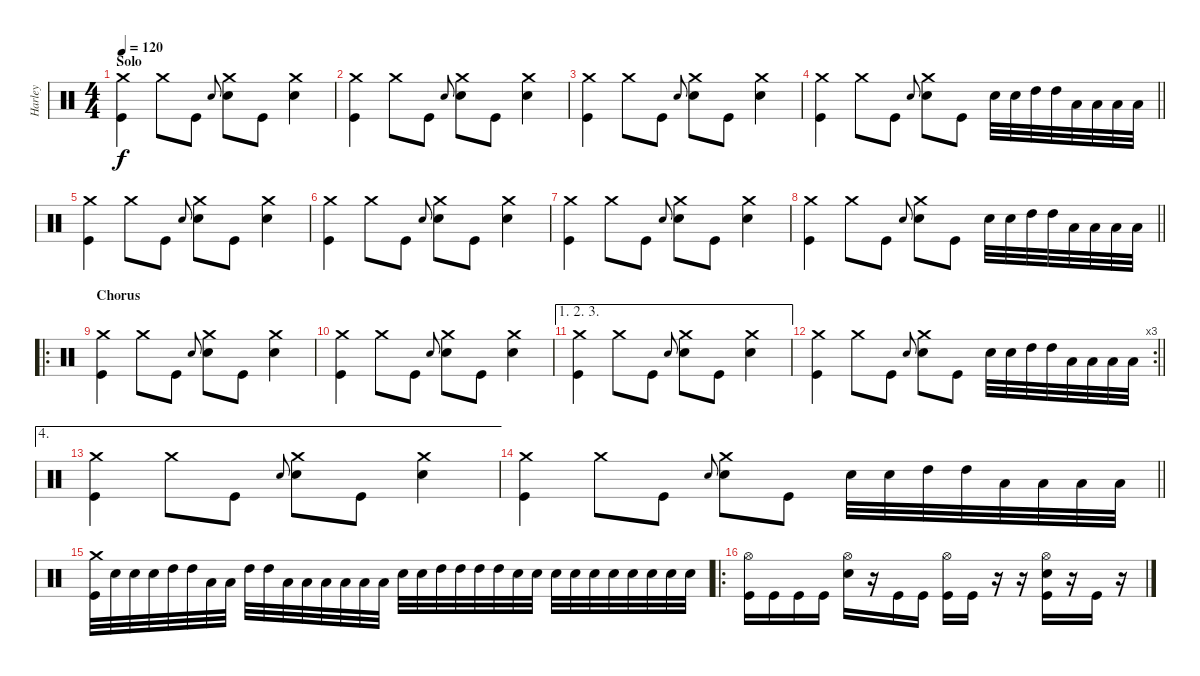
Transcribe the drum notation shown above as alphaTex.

\track ("Harley" "Harley") {instrument percussion}
\staff {score}
\articulation defaults
\ts (4 4)
\section ("" "Solo")
\tempo 120
\clef neutral
\ks c
("Crash medium (hit)" "Kick (hit)").4{dy f} "Crash medium (hit)".8 "Kick (hit)".8 "Snare (hit) 2".8{gr onbeat} ("Crash medium (hit)" "Snare (hit) 2").8 "Kick (hit)".8 ("Crash medium (hit)" "Snare (hit) 2").4 |
("Crash medium (hit)" "Kick (hit)").4 "Crash medium (hit)".8 "Kick (hit)".8 "Snare (hit) 2".8{gr onbeat} ("Crash medium (hit)" "Snare (hit) 2").8 "Kick (hit)".8 ("Crash medium (hit)" "Snare (hit) 2").4 |
("Crash medium (hit)" "Kick (hit)").4 "Crash medium (hit)".8 "Kick (hit)".8 "Snare (hit) 2".8{gr onbeat} ("Crash medium (hit)" "Snare (hit) 2").8 "Kick (hit)".8 ("Crash medium (hit)" "Snare (hit) 2").4 |
\barLineRight lightlight
("Crash medium (hit)" "Kick (hit)").4 "Crash medium (hit)".8 "Kick (hit)".8 "Snare (hit) 2".8{gr onbeat} ("Crash medium (hit)" "Snare (hit) 2").8 "Kick (hit)".8 "Snare (hit) 2".32 "Snare (hit) 2".32 "High Tom (hit)".32 "High Tom (hit)".32 "Low Tom (hit)".32 "Low Tom (hit)".32 "Low Floor Tom (hit)".32 "Low Floor Tom (hit)".32 |
("Crash medium (hit)" "Kick (hit)").4 "Crash medium (hit)".8 "Kick (hit)".8 "Snare (hit) 2".8{gr onbeat} ("Crash medium (hit)" "Snare (hit) 2").8 "Kick (hit)".8 ("Crash medium (hit)" "Snare (hit) 2").4 |
("Crash medium (hit)" "Kick (hit)").4 "Crash medium (hit)".8 "Kick (hit)".8 "Snare (hit) 2".8{gr onbeat} ("Crash medium (hit)" "Snare (hit) 2").8 "Kick (hit)".8 ("Crash medium (hit)" "Snare (hit) 2").4 |
("Crash medium (hit)" "Kick (hit)").4 "Crash medium (hit)".8 "Kick (hit)".8 "Snare (hit) 2".8{gr onbeat} ("Crash medium (hit)" "Snare (hit) 2").8 "Kick (hit)".8 ("Crash medium (hit)" "Snare (hit) 2").4 |
\barLineRight lightlight
("Crash medium (hit)" "Kick (hit)").4 "Crash medium (hit)".8 "Kick (hit)".8 "Snare (hit) 2".8{gr onbeat} ("Crash medium (hit)" "Snare (hit) 2").8 "Kick (hit)".8 "Snare (hit) 2".32 "Snare (hit) 2".32 "High Tom (hit)".32 "High Tom (hit)".32 "Low Tom (hit)".32 "Low Tom (hit)".32 "Low Floor Tom (hit)".32 "Low Floor Tom (hit)".32 |
\ro
\section ("" "Chorus")
("Crash medium (hit)" "Kick (hit)").4 "Crash medium (hit)".8 "Kick (hit)".8 "Snare (hit) 2".8{gr onbeat} ("Crash medium (hit)" "Snare (hit) 2").8 "Kick (hit)".8 ("Crash medium (hit)" "Snare (hit) 2").4 |
("Crash medium (hit)" "Kick (hit)").4 "Crash medium (hit)".8 "Kick (hit)".8 "Snare (hit) 2".8{gr onbeat} ("Crash medium (hit)" "Snare (hit) 2").8 "Kick (hit)".8 ("Crash medium (hit)" "Snare (hit) 2").4 |
\ae (1 2 3)
("Crash medium (hit)" "Kick (hit)").4 "Crash medium (hit)".8 "Kick (hit)".8 "Snare (hit) 2".8{gr onbeat} ("Crash medium (hit)" "Snare (hit) 2").8 "Kick (hit)".8 ("Crash medium (hit)" "Snare (hit) 2").4 |
\rc 3
\barLineRight lightlight
("Crash medium (hit)" "Kick (hit)").4 "Crash medium (hit)".8 "Kick (hit)".8 "Snare (hit) 2".8{gr onbeat} ("Crash medium (hit)" "Snare (hit) 2").8 "Kick (hit)".8 "Snare (hit) 2".32 "Snare (hit) 2".32 "High Tom (hit)".32 "High Tom (hit)".32 "Low Tom (hit)".32 "Low Tom (hit)".32 "Low Floor Tom (hit)".32 "Low Floor Tom (hit)".32 |
\ae 4
("Crash medium (hit)" "Kick (hit)").4 "Crash medium (hit)".8 "Kick (hit)".8 "Snare (hit) 2".8{gr onbeat} ("Crash medium (hit)" "Snare (hit) 2").8 "Kick (hit)".8 ("Crash medium (hit)" "Snare (hit) 2").4 |
\barLineRight lightlight
("Crash medium (hit)" "Kick (hit)").4 "Crash medium (hit)".8 "Kick (hit)".8 "Snare (hit) 2".8{gr onbeat} ("Crash medium (hit)" "Snare (hit) 2").8 "Kick (hit)".8 "Snare (hit) 2".32 "Snare (hit) 2".32 "High Tom (hit)".32 "High Tom (hit)".32 "Low Tom (hit)".32 "Low Tom (hit)".32 "Low Floor Tom (hit)".32 "Low Floor Tom (hit)".32 |
("Crash medium (hit)" "Kick (hit)").32 "Snare (hit) 2".32 "Snare (hit) 2".32 "Snare (hit) 2".32 "High Tom (hit)".32 "High Tom (hit)".32 "Low Tom (hit)".32 "Low Tom (hit)".32 "High Tom (hit)".32 "High Tom (hit)".32 "Low Tom (hit)".32 "Low Tom (hit)".32 "Low Floor Tom (hit)".32 "Low Floor Tom (hit)".32 "Low Tom (hit)".32 "Low Tom (hit)".32 "Snare (hit) 2".32 "Snare (hit) 2".32 "High Tom (hit)".32 "High Tom (hit)".32 "High Tom (hit)".32 "High Tom (hit)".32 "Snare (hit) 2".32 "Snare (hit) 2".32 "Snare (hit) 2".32 "Snare (hit) 2".32 "Snare (hit) 2".32 "Snare (hit) 2".32 "Snare (hit) 2".32 "Snare (hit) 2".32 "Snare (hit) 2".32 "Snare (hit) 2".32 |
\ro
("Hi-Hat (open)" "Kick (hit)").16 "Kick (hit)".16 "Kick (hit)".16 "Kick (hit)".16 ("Hi-Hat (open)" "Snare (hit) 2").16 r.16 "Kick (hit)".16 "Kick (hit)".16 ("Hi-Hat (open)" "Kick (hit)").16 "Kick (hit)".16 r.16 r.16 ("Hi-Hat (open)" "Snare (hit) 2" "Kick (hit)").16 r.16 "Kick (hit)".16 r.16
